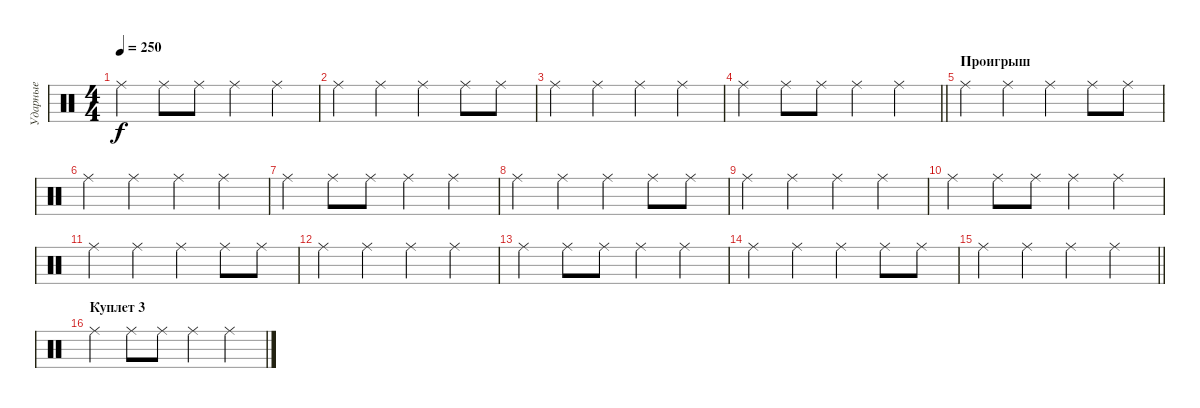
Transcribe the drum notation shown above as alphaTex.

\track ("Ударные" "Ударные") {instrument percussion}
\staff {score}
\articulation defaults
\ts (4 4)
\tempo 250
\clef neutral
\ks c "Ride (middle)".4{dy f} "Ride (middle)".8 "Ride (middle)".8 "Ride (middle)".4 "Ride (middle)".4
|
"Ride (middle)".4 "Ride (middle)".4 "Ride (middle)".4 "Ride (middle)".8 "Ride (middle)".8 |
"Ride (middle)".4 "Ride (middle)".4 "Ride (middle)".4 "Ride (middle)".4 |
\barLineRight lightlight "Ride (middle)".4 "Ride (middle)".8 "Ride (middle)".8 "Ride (middle)".4 "Ride (middle)".4
|
\section ("" "Проигрыш")
"Ride (middle)".4 "Ride (middle)".4 "Ride (middle)".4 "Ride (middle)".8 "Ride (middle)".8 |
"Ride (middle)".4 "Ride (middle)".4 "Ride (middle)".4 "Ride (middle)".4 |
"Ride (middle)".4 "Ride (middle)".8 "Ride (middle)".8 "Ride (middle)".4 "Ride (middle)".4 |
"Ride (middle)".4 "Ride (middle)".4 "Ride (middle)".4 "Ride (middle)".8 "Ride (middle)".8 |
"Ride (middle)".4 "Ride (middle)".4 "Ride (middle)".4 "Ride (middle)".4 |
"Ride (middle)".4 "Ride (middle)".8 "Ride (middle)".8 "Ride (middle)".4 "Ride (middle)".4 |
"Ride (middle)".4 "Ride (middle)".4 "Ride (middle)".4 "Ride (middle)".8 "Ride (middle)".8 |
"Ride (middle)".4 "Ride (middle)".4 "Ride (middle)".4 "Ride (middle)".4 |
"Ride (middle)".4 "Ride (middle)".8 "Ride (middle)".8 "Ride (middle)".4 "Ride (middle)".4 |
"Ride (middle)".4 "Ride (middle)".4 "Ride (middle)".4 "Ride (middle)".8 "Ride (middle)".8 |
\barLineRight lightlight "Ride (middle)".4 "Ride (middle)".4 "Ride (middle)".4 "Ride (middle)".4
|
\section ("" "Куплет 3")
"Ride (middle)".4 "Ride (middle)".8 "Ride (middle)".8 "Ride (middle)".4 "Ride (middle)".4
